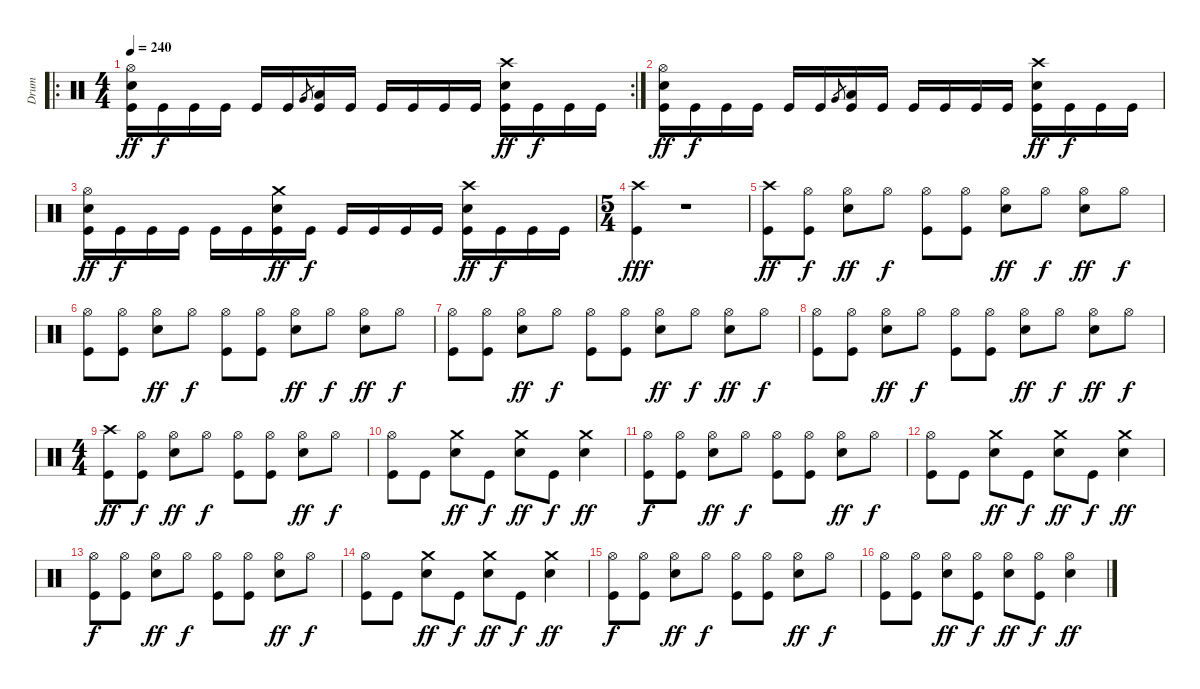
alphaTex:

\track ("Drum" "Drum") {instrument percussion}
\staff {score}
\articulation defaults
\ro
\rc 2
\ts (4 4)
\tempo 240
\clef neutral
\ks c
("Kick (hit)" "Electric Snare (hit)" "Hi-Hat (open)").16{dy ff} "Kick (hit)".16{dy f} "Kick (hit)".16 "Kick (hit)".16 "Kick (hit)".16 "Kick (hit)".16 "Very Low Tom (hit)".8{gr} ("Kick (hit)" "Low Floor Tom (hit)").16 "Kick (hit)".16 "Kick (hit)".16 "Kick (hit)".16 "Kick (hit)".16 "Kick (hit)".16 ("Kick (hit)" "Electric Snare (hit)" "Crash high (hit)").16{dy ff} "Kick (hit)".16{dy f} "Kick (hit)".16 "Kick (hit)".16 |
("Kick (hit)" "Electric Snare (hit)" "Hi-Hat (open)").16{dy ff} "Kick (hit)".16{dy f} "Kick (hit)".16 "Kick (hit)".16 "Kick (hit)".16 "Kick (hit)".16 "Very Low Tom (hit)".8{gr} ("Kick (hit)" "Low Floor Tom (hit)").16 "Kick (hit)".16 "Kick (hit)".16 "Kick (hit)".16 "Kick (hit)".16 "Kick (hit)".16 ("Kick (hit)" "Electric Snare (hit)" "Crash high (hit)").16{dy ff} "Kick (hit)".16{dy f} "Kick (hit)".16 "Kick (hit)".16 |
("Kick (hit)" "Electric Snare (hit)" "Hi-Hat (open)").16{dy ff} "Kick (hit)".16{dy f} "Kick (hit)".16 "Kick (hit)".16 "Kick (hit)".16 "Kick (hit)".16 ("Kick (hit)" "Electric Snare (hit)" "Crash medium (hit)").16{dy ff} "Kick (hit)".16{dy f} "Kick (hit)".16 "Kick (hit)".16 "Kick (hit)".16 "Kick (hit)".16 ("Kick (hit)" "Electric Snare (hit)" "Crash high (hit)").16{dy ff} "Kick (hit)".16{dy f} "Kick (hit)".16 "Kick (hit)".16 |
\ts (5 4)
("Kick (hit)" "Crash high (hit)").4{dy fff} r.1{volume 0} |
("Kick (hit)" "Crash high (hit)").8{dy ff volume 16} ("Kick (hit)" "Hi-Hat (open)").8{dy f} ("Electric Snare (hit)" "Hi-Hat (open)").8{dy ff} "Hi-Hat (open)".8{dy f} ("Kick (hit)" "Hi-Hat (open)").8 ("Kick (hit)" "Hi-Hat (open)").8 ("Electric Snare (hit)" "Hi-Hat (open)").8{dy ff} "Hi-Hat (open)".8{dy f} ("Electric Snare (hit)" "Hi-Hat (open)").8{dy ff} "Hi-Hat (open)".8{dy f} |
("Kick (hit)" "Hi-Hat (open)").8 ("Kick (hit)" "Hi-Hat (open)").8 ("Electric Snare (hit)" "Hi-Hat (open)").8{dy ff} "Hi-Hat (open)".8{dy f} ("Kick (hit)" "Hi-Hat (open)").8 ("Kick (hit)" "Hi-Hat (open)").8 ("Electric Snare (hit)" "Hi-Hat (open)").8{dy ff} "Hi-Hat (open)".8{dy f} ("Electric Snare (hit)" "Hi-Hat (open)").8{dy ff} "Hi-Hat (open)".8{dy f} |
("Kick (hit)" "Hi-Hat (open)").8 ("Kick (hit)" "Hi-Hat (open)").8 ("Electric Snare (hit)" "Hi-Hat (open)").8{dy ff} "Hi-Hat (open)".8{dy f} ("Kick (hit)" "Hi-Hat (open)").8 ("Kick (hit)" "Hi-Hat (open)").8 ("Electric Snare (hit)" "Hi-Hat (open)").8{dy ff} "Hi-Hat (open)".8{dy f} ("Electric Snare (hit)" "Hi-Hat (open)").8{dy ff} "Hi-Hat (open)".8{dy f} |
("Kick (hit)" "Hi-Hat (open)").8 ("Kick (hit)" "Hi-Hat (open)").8 ("Electric Snare (hit)" "Hi-Hat (open)").8{dy ff} "Hi-Hat (open)".8{dy f} ("Kick (hit)" "Hi-Hat (open)").8 ("Kick (hit)" "Hi-Hat (open)").8 ("Electric Snare (hit)" "Hi-Hat (open)").8{dy ff} "Hi-Hat (open)".8{dy f} ("Electric Snare (hit)" "Hi-Hat (open)").8{dy ff} "Hi-Hat (open)".8{dy f} |
\ts (4 4)
("Kick (hit)" "Crash high (hit)").8{dy ff} ("Kick (hit)" "Hi-Hat (open)").8{dy f} ("Electric Snare (hit)" "Hi-Hat (open)").8{dy ff} "Hi-Hat (open)".8{dy f} ("Kick (hit)" "Hi-Hat (open)").8 ("Kick (hit)" "Hi-Hat (open)").8 ("Electric Snare (hit)" "Hi-Hat (open)").8{dy ff} "Hi-Hat (open)".8{dy f} |
("Kick (hit)" "Hi-Hat (open)").8 "Kick (hit)".8 ("Electric Snare (hit)" "Crash medium (hit)").8{dy ff} "Kick (hit)".8{dy f} ("Electric Snare (hit)" "Crash medium (hit)").8{dy ff} "Kick (hit)".8{dy f} ("Electric Snare (hit)" "Crash medium (hit)").4{dy ff} |
("Kick (hit)" "Hi-Hat (open)").8{dy f} ("Kick (hit)" "Hi-Hat (open)").8 ("Electric Snare (hit)" "Hi-Hat (open)").8{dy ff} "Hi-Hat (open)".8{dy f} ("Kick (hit)" "Hi-Hat (open)").8 ("Kick (hit)" "Hi-Hat (open)").8 ("Electric Snare (hit)" "Hi-Hat (open)").8{dy ff} "Hi-Hat (open)".8{dy f} |
("Kick (hit)" "Hi-Hat (open)").8 "Kick (hit)".8 ("Electric Snare (hit)" "Crash medium (hit)").8{dy ff} "Kick (hit)".8{dy f} ("Electric Snare (hit)" "Crash medium (hit)").8{dy ff} "Kick (hit)".8{dy f} ("Electric Snare (hit)" "Crash medium (hit)").4{dy ff} |
("Kick (hit)" "Hi-Hat (open)").8{dy f} ("Kick (hit)" "Hi-Hat (open)").8 ("Electric Snare (hit)" "Hi-Hat (open)").8{dy ff} "Hi-Hat (open)".8{dy f} ("Kick (hit)" "Hi-Hat (open)").8 ("Kick (hit)" "Hi-Hat (open)").8 ("Electric Snare (hit)" "Hi-Hat (open)").8{dy ff} "Hi-Hat (open)".8{dy f} |
("Kick (hit)" "Hi-Hat (open)").8 "Kick (hit)".8 ("Electric Snare (hit)" "Crash medium (hit)").8{dy ff} "Kick (hit)".8{dy f} ("Electric Snare (hit)" "Crash medium (hit)").8{dy ff} "Kick (hit)".8{dy f} ("Electric Snare (hit)" "Crash medium (hit)").4{dy ff} |
("Kick (hit)" "Hi-Hat (open)").8{dy f} ("Kick (hit)" "Hi-Hat (open)").8 ("Electric Snare (hit)" "Hi-Hat (open)").8{dy ff} "Hi-Hat (open)".8{dy f} ("Kick (hit)" "Hi-Hat (open)").8 ("Kick (hit)" "Hi-Hat (open)").8 ("Electric Snare (hit)" "Hi-Hat (open)").8{dy ff} "Hi-Hat (open)".8{dy f} |
("Kick (hit)" "Hi-Hat (open)").8 ("Kick (hit)" "Hi-Hat (open)").8 ("Electric Snare (hit)" "Hi-Hat (open)").8{dy ff} ("Kick (hit)" "Hi-Hat (open)").8{dy f} ("Electric Snare (hit)" "Hi-Hat (open)").8{dy ff} ("Kick (hit)" "Hi-Hat (open)").8{dy f} ("Electric Snare (hit)" "Hi-Hat (open)").4{dy ff}
